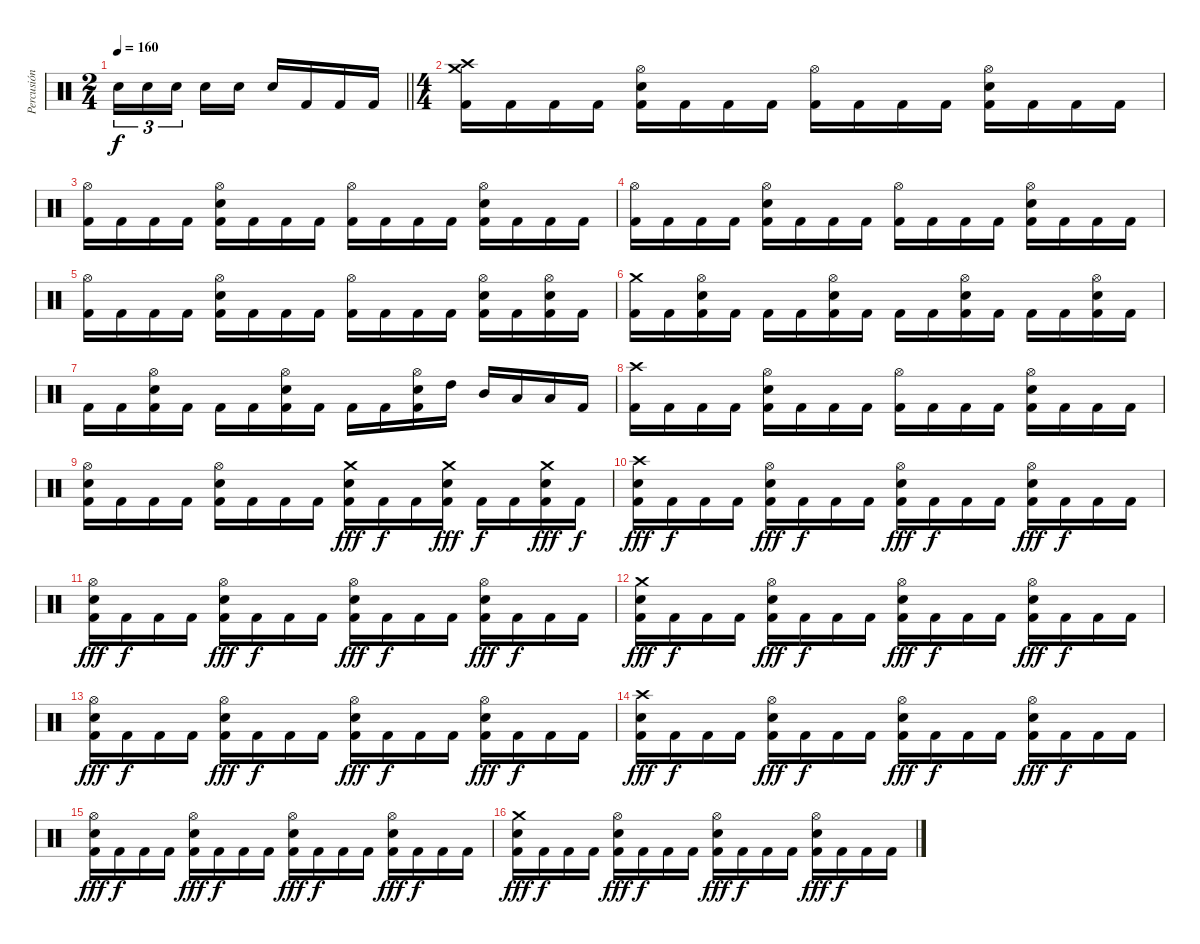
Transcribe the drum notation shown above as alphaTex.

\track ("Percusión" "Percusión") {instrument percussion}
\staff {score}
\articulation defaults
\ts (2 4)
\tempo 160
\clef neutral
\barLineRight lightlight
\ks c "Electric Snare (hit)".16{tu (3 2) dy f} "Electric Snare (hit)".16{tu (3 2)} "Electric Snare (hit)".16{tu (3 2)} "Electric Snare (hit)".16 "Electric Snare (hit)".16 "Electric Snare (hit)".16 "Kick (hit) 2".16 "Kick (hit) 2".16 "Kick (hit) 2".16
|
\ts (4 4)
("Crash medium (hit)" "Crash high (hit)" "Kick (hit) 2").16 "Kick (hit) 2".16 "Kick (hit) 2".16 "Kick (hit) 2".16 ("Hi-Hat (open)" "Electric Snare (hit)" "Kick (hit) 2").16 "Kick (hit) 2".16 "Kick (hit) 2".16 "Kick (hit) 2".16 ("Hi-Hat (open)" "Kick (hit) 2").16 "Kick (hit) 2".16 "Kick (hit) 2".16 "Kick (hit) 2".16 ("Hi-Hat (open)" "Electric Snare (hit)" "Kick (hit) 2").16 "Kick (hit) 2".16 "Kick (hit) 2".16 "Kick (hit) 2".16 |
("Hi-Hat (open)" "Kick (hit) 2").16 "Kick (hit) 2".16 "Kick (hit) 2".16 "Kick (hit) 2".16 ("Hi-Hat (open)" "Electric Snare (hit)" "Kick (hit) 2").16 "Kick (hit) 2".16 "Kick (hit) 2".16 "Kick (hit) 2".16 ("Hi-Hat (open)" "Kick (hit) 2").16 "Kick (hit) 2".16 "Kick (hit) 2".16 "Kick (hit) 2".16 ("Hi-Hat (open)" "Electric Snare (hit)" "Kick (hit) 2").16 "Kick (hit) 2".16 "Kick (hit) 2".16 "Kick (hit) 2".16 |
("Hi-Hat (open)" "Kick (hit) 2").16 "Kick (hit) 2".16 "Kick (hit) 2".16 "Kick (hit) 2".16 ("Hi-Hat (open)" "Electric Snare (hit)" "Kick (hit) 2").16 "Kick (hit) 2".16 "Kick (hit) 2".16 "Kick (hit) 2".16 ("Hi-Hat (open)" "Kick (hit) 2").16 "Kick (hit) 2".16 "Kick (hit) 2".16 "Kick (hit) 2".16 ("Hi-Hat (open)" "Electric Snare (hit)" "Kick (hit) 2").16 "Kick (hit) 2".16 "Kick (hit) 2".16 "Kick (hit) 2".16 |
("Hi-Hat (open)" "Kick (hit) 2").16 "Kick (hit) 2".16 "Kick (hit) 2".16 "Kick (hit) 2".16 ("Hi-Hat (open)" "Electric Snare (hit)" "Kick (hit) 2").16 "Kick (hit) 2".16 "Kick (hit) 2".16 "Kick (hit) 2".16 ("Hi-Hat (open)" "Kick (hit) 2").16 "Kick (hit) 2".16 "Kick (hit) 2".16 "Kick (hit) 2".16 ("Hi-Hat (open)" "Electric Snare (hit)" "Kick (hit) 2").16 "Kick (hit) 2".16 ("Hi-Hat (open)" "Electric Snare (hit)" "Kick (hit) 2").16 "Kick (hit) 2".16 |
("Crash medium (hit)" "Kick (hit) 2").16 "Kick (hit) 2".16 ("Hi-Hat (open)" "Electric Snare (hit)" "Kick (hit) 2").16 "Kick (hit) 2".16 "Kick (hit) 2".16 "Kick (hit) 2".16 ("Hi-Hat (open)" "Electric Snare (hit)" "Kick (hit) 2").16 "Kick (hit) 2".16 "Kick (hit) 2".16 "Kick (hit) 2".16 ("Hi-Hat (open)" "Electric Snare (hit)" "Kick (hit) 2").16 "Kick (hit) 2".16 "Kick (hit) 2".16 "Kick (hit) 2".16 ("Hi-Hat (open)" "Electric Snare (hit)" "Kick (hit) 2").16 "Kick (hit) 2".16 |
"Kick (hit) 2".16 "Kick (hit) 2".16 ("Hi-Hat (open)" "Electric Snare (hit)" "Kick (hit) 2").16 "Kick (hit) 2".16 "Kick (hit) 2".16 "Kick (hit) 2".16 ("Hi-Hat (open)" "Electric Snare (hit)" "Kick (hit) 2").16 "Kick (hit) 2".16 "Kick (hit) 2".16 "Kick (hit) 2".16 ("Hi-Hat (open)" "Electric Snare (hit)" "Kick (hit) 2").16 "High Tom (hit)".16 "Mid Tom (hit)".16 "Low Tom (hit)".16 "Low Floor Tom (hit)".16 "Kick (hit) 2".16 |
("Crash high (hit)" "Kick (hit) 2").16 "Kick (hit) 2".16 "Kick (hit) 2".16 "Kick (hit) 2".16 ("Hi-Hat (open)" "Electric Snare (hit)" "Kick (hit) 2").16 "Kick (hit) 2".16 "Kick (hit) 2".16 "Kick (hit) 2".16 ("Hi-Hat (open)" "Kick (hit) 2").16 "Kick (hit) 2".16 "Kick (hit) 2".16 "Kick (hit) 2".16 ("Hi-Hat (open)" "Electric Snare (hit)" "Kick (hit) 2").16 "Kick (hit) 2".16 "Kick (hit) 2".16 "Kick (hit) 2".16 |
("Hi-Hat (open)" "Electric Snare (hit)" "Kick (hit) 2").16 "Kick (hit) 2".16 "Kick (hit) 2".16 "Kick (hit) 2".16 ("Hi-Hat (open)" "Electric Snare (hit)" "Kick (hit) 2").16 "Kick (hit) 2".16 "Kick (hit) 2".16 "Kick (hit) 2".16 ("Crash medium (hit)" "Electric Snare (hit)" "Kick (hit) 2").16{dy fff} "Kick (hit) 2".16{dy f} "Kick (hit) 2".16 ("Crash medium (hit)" "Electric Snare (hit)" "Kick (hit) 2").16{dy fff} "Kick (hit) 2".16{dy f} "Kick (hit) 2".16 ("Crash medium (hit)" "Electric Snare (hit)" "Kick (hit) 2").16{dy fff} "Kick (hit) 2".16{dy f} |
("Crash high (hit)" "Electric Snare (hit)" "Kick (hit) 2").16{dy fff} "Kick (hit) 2".16{dy f} "Kick (hit) 2".16 "Kick (hit) 2".16 ("Hi-Hat (open)" "Electric Snare (hit)" "Kick (hit) 2").16{dy fff} "Kick (hit) 2".16{dy f} "Kick (hit) 2".16 "Kick (hit) 2".16 ("Hi-Hat (open)" "Electric Snare (hit)" "Kick (hit) 2").16{dy fff} "Kick (hit) 2".16{dy f} "Kick (hit) 2".16 "Kick (hit) 2".16 ("Hi-Hat (open)" "Electric Snare (hit)" "Kick (hit) 2").16{dy fff} "Kick (hit) 2".16{dy f} "Kick (hit) 2".16 "Kick (hit) 2".16 |
("Hi-Hat (open)" "Electric Snare (hit)" "Kick (hit) 2").16{dy fff} "Kick (hit) 2".16{dy f} "Kick (hit) 2".16 "Kick (hit) 2".16 ("Hi-Hat (open)" "Electric Snare (hit)" "Kick (hit) 2").16{dy fff} "Kick (hit) 2".16{dy f} "Kick (hit) 2".16 "Kick (hit) 2".16 ("Hi-Hat (open)" "Electric Snare (hit)" "Kick (hit) 2").16{dy fff} "Kick (hit) 2".16{dy f} "Kick (hit) 2".16 "Kick (hit) 2".16 ("Hi-Hat (open)" "Electric Snare (hit)" "Kick (hit) 2").16{dy fff} "Kick (hit) 2".16{dy f} "Kick (hit) 2".16 "Kick (hit) 2".16 |
("Crash medium (hit)" "Electric Snare (hit)" "Kick (hit) 2").16{dy fff} "Kick (hit) 2".16{dy f} "Kick (hit) 2".16 "Kick (hit) 2".16 ("Hi-Hat (open)" "Electric Snare (hit)" "Kick (hit) 2").16{dy fff} "Kick (hit) 2".16{dy f} "Kick (hit) 2".16 "Kick (hit) 2".16 ("Hi-Hat (open)" "Electric Snare (hit)" "Kick (hit) 2").16{dy fff} "Kick (hit) 2".16{dy f} "Kick (hit) 2".16 "Kick (hit) 2".16 ("Hi-Hat (open)" "Electric Snare (hit)" "Kick (hit) 2").16{dy fff} "Kick (hit) 2".16{dy f} "Kick (hit) 2".16 "Kick (hit) 2".16 |
("Hi-Hat (open)" "Electric Snare (hit)" "Kick (hit) 2").16{dy fff} "Kick (hit) 2".16{dy f} "Kick (hit) 2".16 "Kick (hit) 2".16 ("Hi-Hat (open)" "Electric Snare (hit)" "Kick (hit) 2").16{dy fff} "Kick (hit) 2".16{dy f} "Kick (hit) 2".16 "Kick (hit) 2".16 ("Hi-Hat (open)" "Electric Snare (hit)" "Kick (hit) 2").16{dy fff} "Kick (hit) 2".16{dy f} "Kick (hit) 2".16 "Kick (hit) 2".16 ("Hi-Hat (open)" "Electric Snare (hit)" "Kick (hit) 2").16{dy fff} "Kick (hit) 2".16{dy f} "Kick (hit) 2".16 "Kick (hit) 2".16 |
("Crash high (hit)" "Electric Snare (hit)" "Kick (hit) 2").16{dy fff} "Kick (hit) 2".16{dy f} "Kick (hit) 2".16 "Kick (hit) 2".16 ("Hi-Hat (open)" "Electric Snare (hit)" "Kick (hit) 2").16{dy fff} "Kick (hit) 2".16{dy f} "Kick (hit) 2".16 "Kick (hit) 2".16 ("Hi-Hat (open)" "Electric Snare (hit)" "Kick (hit) 2").16{dy fff} "Kick (hit) 2".16{dy f} "Kick (hit) 2".16 "Kick (hit) 2".16 ("Hi-Hat (open)" "Electric Snare (hit)" "Kick (hit) 2").16{dy fff} "Kick (hit) 2".16{dy f} "Kick (hit) 2".16 "Kick (hit) 2".16 |
("Hi-Hat (open)" "Electric Snare (hit)" "Kick (hit) 2").16{dy fff} "Kick (hit) 2".16{dy f} "Kick (hit) 2".16 "Kick (hit) 2".16 ("Hi-Hat (open)" "Electric Snare (hit)" "Kick (hit) 2").16{dy fff} "Kick (hit) 2".16{dy f} "Kick (hit) 2".16 "Kick (hit) 2".16 ("Hi-Hat (open)" "Electric Snare (hit)" "Kick (hit) 2").16{dy fff} "Kick (hit) 2".16{dy f} "Kick (hit) 2".16 "Kick (hit) 2".16 ("Hi-Hat (open)" "Electric Snare (hit)" "Kick (hit) 2").16{dy fff} "Kick (hit) 2".16{dy f} "Kick (hit) 2".16 "Kick (hit) 2".16 |
("Crash medium (hit)" "Electric Snare (hit)" "Kick (hit) 2").16{dy fff} "Kick (hit) 2".16{dy f} "Kick (hit) 2".16 "Kick (hit) 2".16 ("Hi-Hat (open)" "Electric Snare (hit)" "Kick (hit) 2").16{dy fff} "Kick (hit) 2".16{dy f} "Kick (hit) 2".16 "Kick (hit) 2".16 ("Hi-Hat (open)" "Electric Snare (hit)" "Kick (hit) 2").16{dy fff} "Kick (hit) 2".16{dy f} "Kick (hit) 2".16 "Kick (hit) 2".16 ("Hi-Hat (open)" "Electric Snare (hit)" "Kick (hit) 2").16{dy fff} "Kick (hit) 2".16{dy f} "Kick (hit) 2".16 "Kick (hit) 2".16
